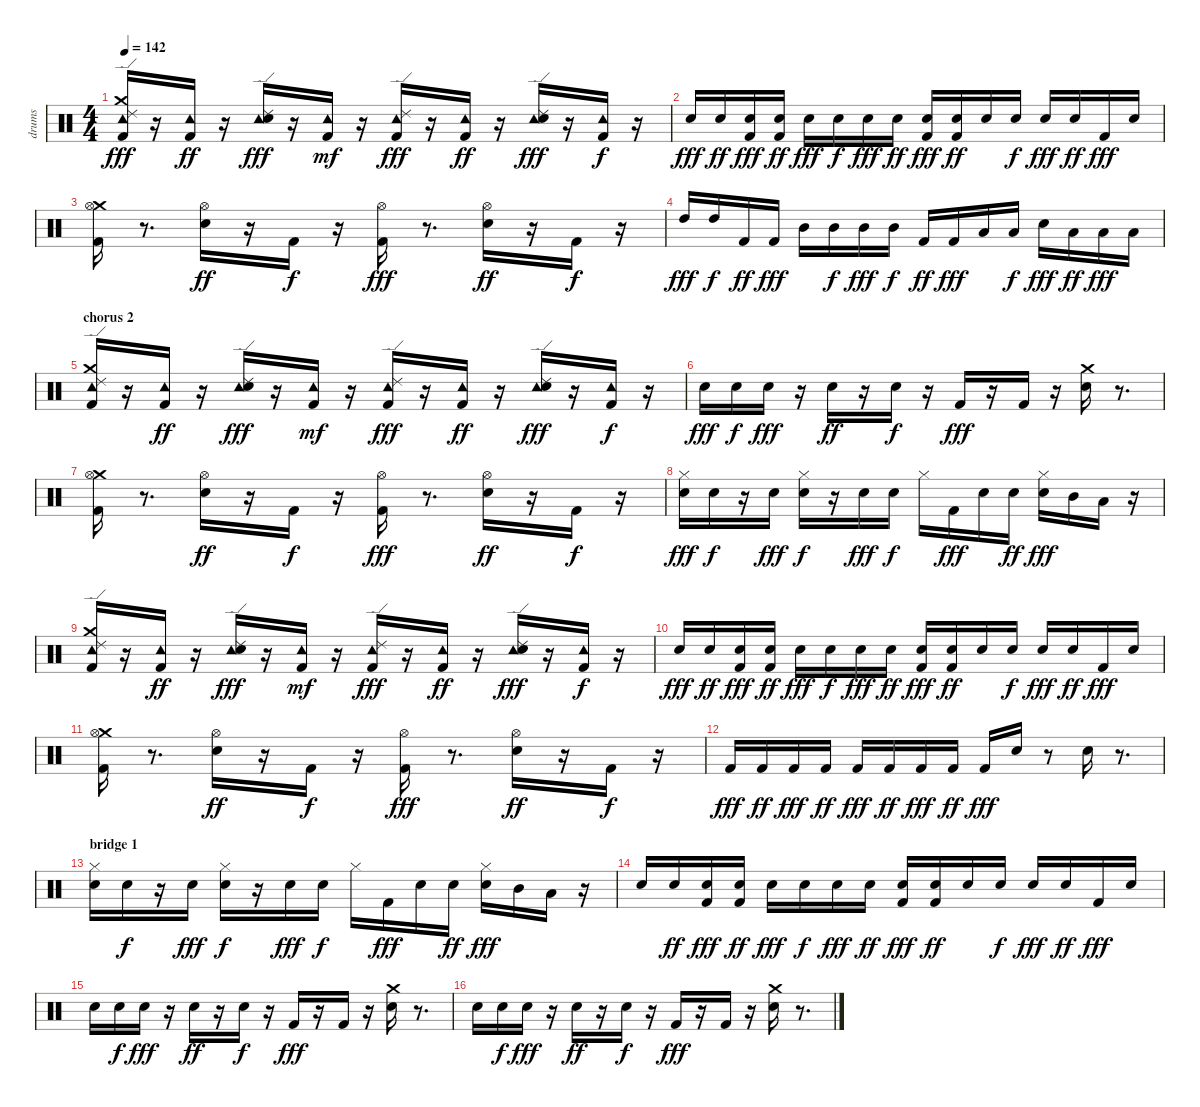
\track ("drums" "drums") {instrument percussion}
\staff {score}
\articulation defaults
\ts (4 4)
\tempo 142
\clef neutral
\ks c
("Tambourine (hit)" "Crash medium (hit)" "Ride (edge) 2" "Kick (hit) 2").16{dy fff} r.16 ("Tambourine (hit)" "Kick (hit) 2").16{dy ff} r.16 ("Tambourine (hit)" "Ride (edge) 2" "Snare (hit) 2").16{dy fff} r.16 ("Tambourine (hit)" "Kick (hit) 2").16{dy mf} r.16 ("Tambourine (hit)" "Ride (edge) 2" "Kick (hit) 2").16{dy fff} r.16 ("Tambourine (hit)" "Kick (hit) 2").16{dy ff} r.16 ("Tambourine (hit)" "Ride (edge) 2" "Snare (hit) 2").16{dy fff} r.16 ("Tambourine (hit)" "Kick (hit) 2").16{dy f} r.16 |
"Snare (hit) 2".16{dy fff} "Snare (hit) 2".16{dy ff} ("Snare (hit) 2" "Kick (hit) 2").16{dy fff} ("Snare (hit) 2" "Kick (hit) 2").16{dy ff} "Snare (hit) 2".16{dy fff} "Snare (hit) 2".16{dy f} "Snare (hit) 2".16{dy fff} "Snare (hit) 2".16{dy ff} ("Snare (hit) 2" "Kick (hit) 2").16{dy fff} ("Snare (hit) 2" "Kick (hit) 2").16{dy ff} "Snare (hit) 2".16 "Snare (hit) 2".16{dy f} "Snare (hit) 2".16{dy fff} "Snare (hit) 2".16{dy ff} "Kick (hit) 2".16{dy fff} "Snare (hit) 2".16 |
("Crash medium (hit)" "Hi-Hat (open)" "Kick (hit) 2").16 r.8{d} ("Hi-Hat (open)" "Snare (hit) 2").16{dy ff} r.16 "Kick (hit) 2".16{dy f} r.16 ("Hi-Hat (open)" "Kick (hit) 2").16{dy fff} r.8{d} ("Hi-Hat (open)" "Snare (hit) 2").16{dy ff} r.16 "Kick (hit) 2".16{dy f} r.16 |
"High Tom (hit)".16{dy fff} "High Tom (hit)".16{dy f} "Kick (hit) 2".16{dy ff} "Kick (hit) 2".16{dy fff} "Mid Tom (hit)".16 "Mid Tom (hit)".16{dy f} "Mid Tom (hit)".16{dy fff} "Mid Tom (hit)".16{dy f} "Kick (hit) 2".16{dy ff} "Kick (hit) 2".16{dy fff} "Low Floor Tom (hit)".16 "Low Floor Tom (hit)".16{dy f} "Snare (hit) 2".16{dy fff} "Low Floor Tom (hit)".16{dy ff} "Low Floor Tom (hit)".16{dy fff} "Low Floor Tom (hit)".16 |
\section ("" "chorus 2")
("Tambourine (hit)" "Crash medium (hit)" "Ride (edge) 2" "Kick (hit) 2").16 r.16 ("Tambourine (hit)" "Kick (hit) 2").16{dy ff} r.16 ("Tambourine (hit)" "Ride (edge) 2" "Snare (hit) 2").16{dy fff} r.16 ("Tambourine (hit)" "Kick (hit) 2").16{dy mf} r.16 ("Tambourine (hit)" "Ride (edge) 2" "Kick (hit) 2").16{dy fff} r.16 ("Tambourine (hit)" "Kick (hit) 2").16{dy ff} r.16 ("Tambourine (hit)" "Ride (edge) 2" "Snare (hit) 2").16{dy fff} r.16 ("Tambourine (hit)" "Kick (hit) 2").16{dy f} r.16 |
"Snare (hit) 2".16{dy fff} "Snare (hit) 2".16{dy f} "Snare (hit) 2".16{dy fff} r.16 "Snare (hit) 2".16{dy ff} r.16 "Snare (hit) 2".16{dy f} r.16 "Kick (hit) 2".16{dy fff} r.16 "Kick (hit) 2".16 r.16 ("Crash medium (hit)" "Snare (hit) 2").16 r.8{d} |
("Crash medium (hit)" "Hi-Hat (open)" "Kick (hit) 2").16 r.8{d} ("Hi-Hat (open)" "Snare (hit) 2").16{dy ff} r.16 "Kick (hit) 2".16{dy f} r.16 ("Hi-Hat (open)" "Kick (hit) 2").16{dy fff} r.8{d} ("Hi-Hat (open)" "Snare (hit) 2").16{dy ff} r.16 "Kick (hit) 2".16{dy f} r.16 |
("Hi-Hat (closed)" "Snare (hit) 2").16{dy fff} "Snare (hit) 2".16{dy f} r.16 "Snare (hit) 2".16{dy fff} ("Hi-Hat (closed)" "Snare (hit) 2").16{dy f} r.16 "Snare (hit) 2".16{dy fff} "Snare (hit) 2".16{dy f} "Hi-Hat (closed)".16 "Kick (hit) 2".16{dy fff} "Snare (hit) 2".16 "Snare (hit) 2".16{dy ff} ("Hi-Hat (closed)" "Snare (hit) 2").16{dy fff} "Mid Tom (hit)".16 "Low Floor Tom (hit)".16 r.16 |
("Tambourine (hit)" "Crash medium (hit)" "Ride (edge) 2" "Kick (hit) 2").16 r.16 ("Tambourine (hit)" "Kick (hit) 2").16{dy ff} r.16 ("Tambourine (hit)" "Ride (edge) 2" "Snare (hit) 2").16{dy fff} r.16 ("Tambourine (hit)" "Kick (hit) 2").16{dy mf} r.16 ("Tambourine (hit)" "Ride (edge) 2" "Kick (hit) 2").16{dy fff} r.16 ("Tambourine (hit)" "Kick (hit) 2").16{dy ff} r.16 ("Tambourine (hit)" "Ride (edge) 2" "Snare (hit) 2").16{dy fff} r.16 ("Tambourine (hit)" "Kick (hit) 2").16{dy f} r.16 |
"Snare (hit) 2".16{dy fff} "Snare (hit) 2".16{dy ff} ("Snare (hit) 2" "Kick (hit) 2").16{dy fff} ("Snare (hit) 2" "Kick (hit) 2").16{dy ff} "Snare (hit) 2".16{dy fff} "Snare (hit) 2".16{dy f} "Snare (hit) 2".16{dy fff} "Snare (hit) 2".16{dy ff} ("Snare (hit) 2" "Kick (hit) 2").16{dy fff} ("Snare (hit) 2" "Kick (hit) 2").16{dy ff} "Snare (hit) 2".16 "Snare (hit) 2".16{dy f} "Snare (hit) 2".16{dy fff} "Snare (hit) 2".16{dy ff} "Kick (hit) 2".16{dy fff} "Snare (hit) 2".16 |
("Crash medium (hit)" "Hi-Hat (open)" "Kick (hit) 2").16 r.8{d} ("Hi-Hat (open)" "Snare (hit) 2").16{dy ff} r.16 "Kick (hit) 2".16{dy f} r.16 ("Hi-Hat (open)" "Kick (hit) 2").16{dy fff} r.8{d} ("Hi-Hat (open)" "Snare (hit) 2").16{dy ff} r.16 "Kick (hit) 2".16{dy f} r.16 |
"Kick (hit) 2".16{dy fff} "Kick (hit) 2".16{dy ff} "Kick (hit) 2".16{dy fff} "Kick (hit) 2".16{dy ff} "Kick (hit) 2".16{dy fff} "Kick (hit) 2".16{dy ff} "Kick (hit) 2".16{dy fff} "Kick (hit) 2".16{dy ff} "Kick (hit) 2".16{dy fff} "Snare (hit) 2".16 r.8 "Snare (hit) 2".16 r.8{d} |
\section ("" "bridge 1")
("Hi-Hat (closed)" "Snare (hit) 2").16 "Snare (hit) 2".16{dy f} r.16 "Snare (hit) 2".16{dy fff} ("Hi-Hat (closed)" "Snare (hit) 2").16{dy f} r.16 "Snare (hit) 2".16{dy fff} "Snare (hit) 2".16{dy f} "Hi-Hat (closed)".16 "Kick (hit) 2".16{dy fff} "Snare (hit) 2".16 "Snare (hit) 2".16{dy ff} ("Hi-Hat (closed)" "Snare (hit) 2").16{dy fff} "Mid Tom (hit)".16 "Low Floor Tom (hit)".16 r.16 |
"Snare (hit) 2".16 "Snare (hit) 2".16{dy ff} ("Snare (hit) 2" "Kick (hit) 2").16{dy fff} ("Snare (hit) 2" "Kick (hit) 2").16{dy ff} "Snare (hit) 2".16{dy fff} "Snare (hit) 2".16{dy f} "Snare (hit) 2".16{dy fff} "Snare (hit) 2".16{dy ff} ("Snare (hit) 2" "Kick (hit) 2").16{dy fff} ("Snare (hit) 2" "Kick (hit) 2").16{dy ff} "Snare (hit) 2".16 "Snare (hit) 2".16{dy f} "Snare (hit) 2".16{dy fff} "Snare (hit) 2".16{dy ff} "Kick (hit) 2".16{dy fff} "Snare (hit) 2".16 |
"Snare (hit) 2".16 "Snare (hit) 2".16{dy f} "Snare (hit) 2".16{dy fff} r.16 "Snare (hit) 2".16{dy ff} r.16 "Snare (hit) 2".16{dy f} r.16 "Kick (hit) 2".16{dy fff} r.16 "Kick (hit) 2".16 r.16 ("Crash medium (hit)" "Snare (hit) 2").16 r.8{d} |
"Snare (hit) 2".16 "Snare (hit) 2".16{dy f} "Snare (hit) 2".16{dy fff} r.16 "Snare (hit) 2".16{dy ff} r.16 "Snare (hit) 2".16{dy f} r.16 "Kick (hit) 2".16{dy fff} r.16 "Kick (hit) 2".16 r.16 ("Crash medium (hit)" "Snare (hit) 2").16 r.8{d}
